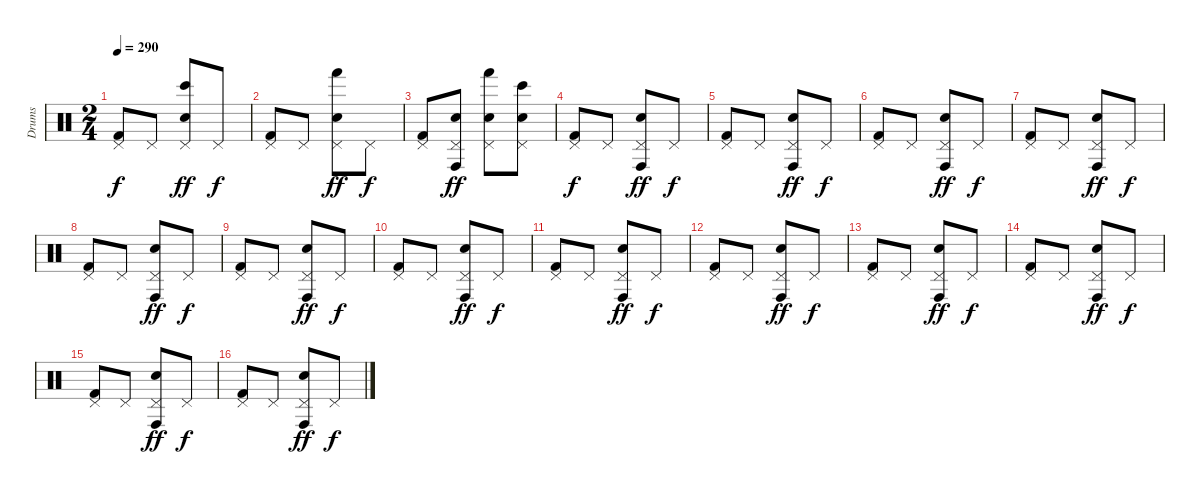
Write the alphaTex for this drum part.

\track ("Drums" "Drums") {instrument percussion}
\staff {score}
\articulation defaults
\ts (2 4)
\tempo 290
\clef neutral
\ks c
("Pedal Hi-Hat (hit)" "Kick (hit) 2").8{dy f} "Pedal Hi-Hat (hit)".8 ("Pedal Hi-Hat (hit)" "Bongo High (hit)" "Electric Snare (hit)").8{dy ff} "Pedal Hi-Hat (hit)".8{dy f} |
("Pedal Hi-Hat (hit)" "Kick (hit) 2").8 "Pedal Hi-Hat (hit)".8 ("Pedal Hi-Hat (hit)" "Hand (hit)" "Electric Snare (hit)").8{dy ff} "Pedal Hi-Hat (hit)".8{dy f} |
("Pedal Hi-Hat (hit)" "Kick (hit) 2").8 ("Pedal Hi-Hat (hit)" "Conga high (hit)" "Electric Snare (hit)").8{dy ff} ("Pedal Hi-Hat (hit)" "Hand (hit)" "Electric Snare (hit)").8 ("Pedal Hi-Hat (hit)" "Bongo High (hit)" "Electric Snare (hit)").8 |
("Pedal Hi-Hat (hit)" "Kick (hit) 2").8{dy f} "Pedal Hi-Hat (hit)".8 ("Pedal Hi-Hat (hit)" "Conga high (hit)" "Electric Snare (hit)").8{dy ff} "Pedal Hi-Hat (hit)".8{dy f} |
("Pedal Hi-Hat (hit)" "Kick (hit) 2").8 "Pedal Hi-Hat (hit)".8 ("Pedal Hi-Hat (hit)" "Conga high (hit)" "Electric Snare (hit)").8{dy ff} "Pedal Hi-Hat (hit)".8{dy f} |
("Pedal Hi-Hat (hit)" "Kick (hit) 2").8 "Pedal Hi-Hat (hit)".8 ("Pedal Hi-Hat (hit)" "Conga high (hit)" "Electric Snare (hit)").8{dy ff} "Pedal Hi-Hat (hit)".8{dy f} |
("Pedal Hi-Hat (hit)" "Kick (hit) 2").8 "Pedal Hi-Hat (hit)".8 ("Pedal Hi-Hat (hit)" "Conga high (hit)" "Electric Snare (hit)").8{dy ff} "Pedal Hi-Hat (hit)".8{dy f} |
("Pedal Hi-Hat (hit)" "Kick (hit) 2").8 "Pedal Hi-Hat (hit)".8 ("Pedal Hi-Hat (hit)" "Conga high (hit)" "Electric Snare (hit)").8{dy ff} "Pedal Hi-Hat (hit)".8{dy f} |
("Pedal Hi-Hat (hit)" "Kick (hit) 2").8 "Pedal Hi-Hat (hit)".8 ("Pedal Hi-Hat (hit)" "Conga high (hit)" "Electric Snare (hit)").8{dy ff} "Pedal Hi-Hat (hit)".8{dy f} |
("Pedal Hi-Hat (hit)" "Kick (hit) 2").8 "Pedal Hi-Hat (hit)".8 ("Pedal Hi-Hat (hit)" "Conga high (hit)" "Electric Snare (hit)").8{dy ff} "Pedal Hi-Hat (hit)".8{dy f} |
("Pedal Hi-Hat (hit)" "Kick (hit) 2").8 "Pedal Hi-Hat (hit)".8 ("Pedal Hi-Hat (hit)" "Conga high (hit)" "Electric Snare (hit)").8{dy ff} "Pedal Hi-Hat (hit)".8{dy f} |
("Pedal Hi-Hat (hit)" "Kick (hit) 2").8 "Pedal Hi-Hat (hit)".8 ("Pedal Hi-Hat (hit)" "Conga high (hit)" "Electric Snare (hit)").8{dy ff} "Pedal Hi-Hat (hit)".8{dy f} |
("Pedal Hi-Hat (hit)" "Kick (hit) 2").8 "Pedal Hi-Hat (hit)".8 ("Pedal Hi-Hat (hit)" "Conga high (hit)" "Electric Snare (hit)").8{dy ff} "Pedal Hi-Hat (hit)".8{dy f} |
("Pedal Hi-Hat (hit)" "Kick (hit) 2").8 "Pedal Hi-Hat (hit)".8 ("Pedal Hi-Hat (hit)" "Conga high (hit)" "Electric Snare (hit)").8{dy ff} "Pedal Hi-Hat (hit)".8{dy f} |
("Pedal Hi-Hat (hit)" "Kick (hit) 2").8 "Pedal Hi-Hat (hit)".8 ("Pedal Hi-Hat (hit)" "Conga high (hit)" "Electric Snare (hit)").8{dy ff} "Pedal Hi-Hat (hit)".8{dy f} |
("Pedal Hi-Hat (hit)" "Kick (hit) 2").8 "Pedal Hi-Hat (hit)".8 ("Pedal Hi-Hat (hit)" "Conga high (hit)" "Electric Snare (hit)").8{dy ff} "Pedal Hi-Hat (hit)".8{dy f}
